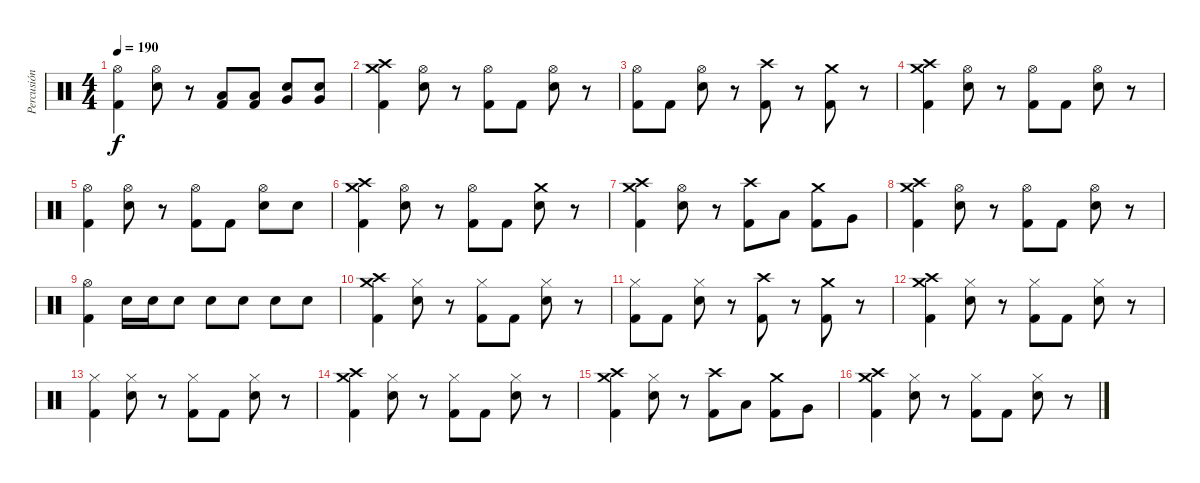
\track ("Percusión" "Percusión") {instrument percussion}
\staff {score}
\articulation defaults
\ts (4 4)
\tempo 190
\clef neutral
\ks c
("Hi-Hat (open)" "Kick (hit) 2").4{dy f} ("Hi-Hat (open)" "Electric Snare (hit)").8 r.8 ("Low Tom (hit)" "Kick (hit) 2").8 ("Low Tom (hit)" "Kick (hit) 2").8 ("Very Low Tom (hit)" "Electric Snare (hit)").8 ("Very Low Tom (hit)" "Electric Snare (hit)").8 |
("Crash high (hit)" "Crash medium (hit)" "Kick (hit) 2").4 ("Hi-Hat (open)" "Electric Snare (hit)").8 r.8 ("Hi-Hat (open)" "Kick (hit) 2").8 "Kick (hit) 2".8 ("Hi-Hat (open)" "Electric Snare (hit)").8 r.8 |
("Hi-Hat (open)" "Kick (hit) 2").8 "Kick (hit) 2".8 ("Hi-Hat (open)" "Electric Snare (hit)").8 r.8 ("Crash high (hit)" "Kick (hit) 2").8 r.8 ("Crash medium (hit)" "Kick (hit) 2").8 r.8 |
("Crash high (hit)" "Crash medium (hit)" "Kick (hit) 2").4 ("Hi-Hat (open)" "Electric Snare (hit)").8 r.8 ("Hi-Hat (open)" "Kick (hit) 2").8 "Kick (hit) 2".8 ("Hi-Hat (open)" "Electric Snare (hit)").8 r.8 |
("Hi-Hat (open)" "Kick (hit) 2").4 ("Hi-Hat (open)" "Electric Snare (hit)").8 r.8 ("Hi-Hat (open)" "Kick (hit) 2").8 "Kick (hit) 2".8 ("Hi-Hat (open)" "Electric Snare (hit)").8 "Electric Snare (hit)".8 |
("Crash high (hit)" "Crash medium (hit)" "Kick (hit) 2").4 ("Hi-Hat (open)" "Electric Snare (hit)").8 r.8 ("Hi-Hat (open)" "Kick (hit) 2").8 "Kick (hit) 2".8 ("Crash medium (hit)" "Electric Snare (hit)").8 r.8 |
("Crash high (hit)" "Crash medium (hit)" "Kick (hit) 2").4 ("Hi-Hat (open)" "Electric Snare (hit)").8 r.8 ("Crash high (hit)" "Kick (hit) 2").8 "Low Tom (hit)".8 ("Crash medium (hit)" "Kick (hit) 2").8 "Very Low Tom (hit)".8 |
("Crash high (hit)" "Crash medium (hit)" "Kick (hit) 2").4 ("Hi-Hat (open)" "Electric Snare (hit)").8 r.8 ("Hi-Hat (open)" "Kick (hit) 2").8 "Kick (hit) 2".8 ("Hi-Hat (open)" "Electric Snare (hit)").8 r.8 |
("Hi-Hat (open)" "Kick (hit) 2").4 "Electric Snare (hit)".16 "Electric Snare (hit)".16 "Electric Snare (hit)".8 "Electric Snare (hit)".8 "Electric Snare (hit)".8 "Electric Snare (hit)".8 "Electric Snare (hit)".8 |
("Crash high (hit)" "Crash medium (hit)" "Kick (hit) 2").4 ("Hi-Hat (closed)" "Electric Snare (hit)").8 r.8 ("Hi-Hat (closed)" "Kick (hit) 2").8 "Kick (hit) 2".8 ("Hi-Hat (closed)" "Electric Snare (hit)").8 r.8 |
("Hi-Hat (closed)" "Kick (hit) 2").8 "Kick (hit) 2".8 ("Hi-Hat (closed)" "Electric Snare (hit)").8 r.8 ("Crash high (hit)" "Kick (hit) 2").8 r.8 ("Crash medium (hit)" "Kick (hit) 2").8 r.8 |
("Crash high (hit)" "Crash medium (hit)" "Kick (hit) 2").4 ("Hi-Hat (closed)" "Electric Snare (hit)").8 r.8 ("Hi-Hat (closed)" "Kick (hit) 2").8 "Kick (hit) 2".8 ("Hi-Hat (closed)" "Electric Snare (hit)").8 r.8 |
("Hi-Hat (closed)" "Kick (hit) 2").4 ("Hi-Hat (closed)" "Electric Snare (hit)").8 r.8 ("Hi-Hat (closed)" "Kick (hit) 2").8 "Kick (hit) 2".8 ("Hi-Hat (closed)" "Electric Snare (hit)").8 r.8 |
("Crash high (hit)" "Crash medium (hit)" "Kick (hit) 2").4 ("Hi-Hat (closed)" "Electric Snare (hit)").8 r.8 ("Hi-Hat (closed)" "Kick (hit) 2").8 "Kick (hit) 2".8 ("Hi-Hat (closed)" "Electric Snare (hit)").8 r.8 |
("Crash high (hit)" "Crash medium (hit)" "Kick (hit) 2").4 ("Hi-Hat (closed)" "Electric Snare (hit)").8 r.8 ("Crash high (hit)" "Kick (hit) 2").8 "Low Tom (hit)".8 ("Crash medium (hit)" "Kick (hit) 2").8 "Very Low Tom (hit)".8 |
("Crash high (hit)" "Crash medium (hit)" "Kick (hit) 2").4 ("Hi-Hat (closed)" "Electric Snare (hit)").8 r.8 ("Hi-Hat (closed)" "Kick (hit) 2").8 "Kick (hit) 2".8 ("Hi-Hat (closed)" "Electric Snare (hit)").8 r.8
